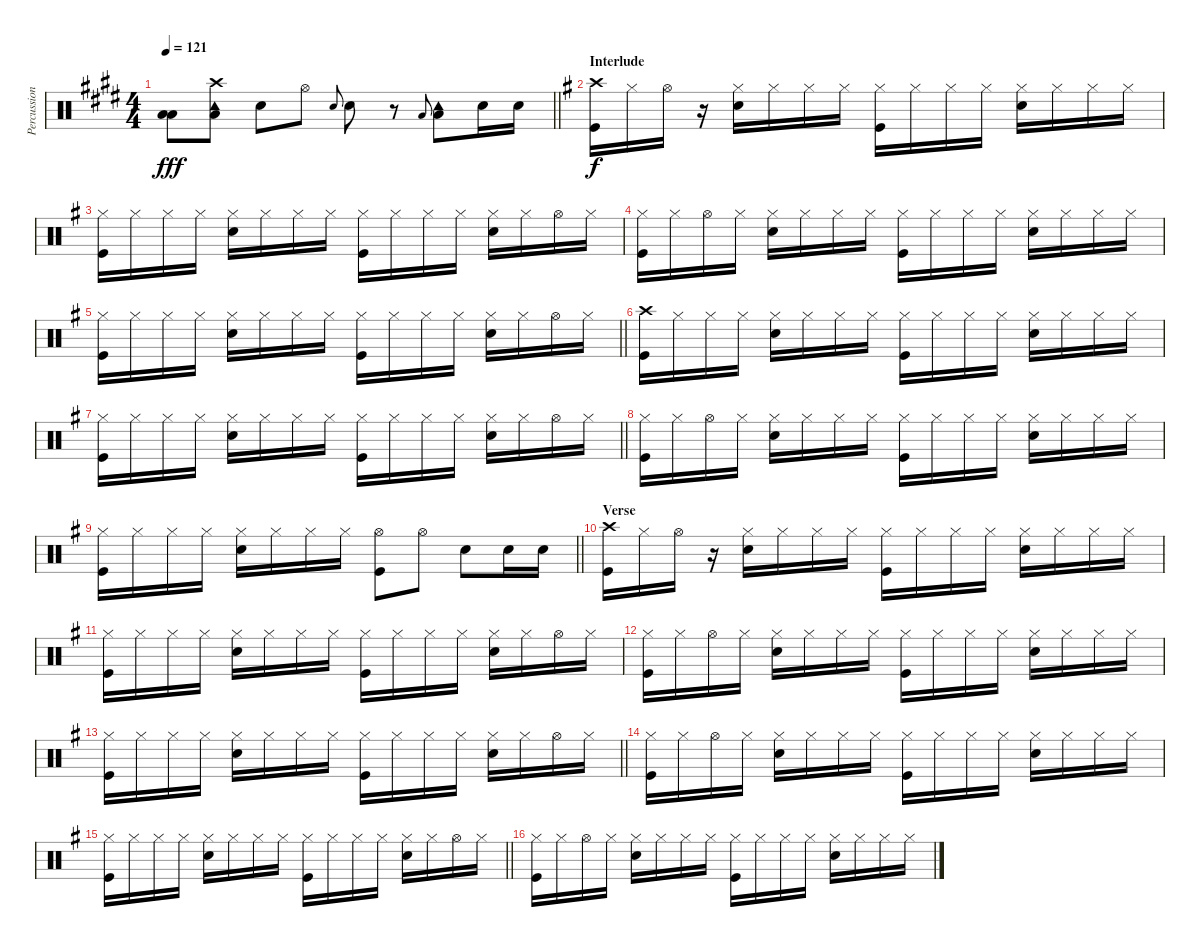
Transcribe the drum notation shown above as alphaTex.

\track ("Percussion" "Percussion") {instrument percussion}
\staff {score}
\articulation defaults
\ts (4 4)
\tempo 121
\clef neutral
\barLineRight lightlight
\ks e
("Low Floor Tom (hit)" "Low Tom (hit)").8{dy fff} ("Crash high (hit)" "Tambourine (hit)" "Low Floor Tom (hit)").8 "Snare (hit) 2".8 "Hi-Hat (open)".8 "Snare (hit) 2".8{gr onbeat} "Snare (hit) 2".8 r.8 "Low Floor Tom (hit)".8{gr onbeat} ("Tambourine (hit)" "Low Floor Tom (hit)").8 "Snare (hit) 2".16 "Snare (hit) 2".16 |
\section ("" "Interlude")
\ks g
("Kick (hit)" "Crash high (hit)").16{dy f} "Hi-Hat (closed)".16 "Hi-Hat (open)".16 r.16 ("Hi-Hat (closed)" "Snare (hit) 2").16 "Hi-Hat (closed)".16 "Hi-Hat (closed)".16 "Hi-Hat (closed)".16 ("Hi-Hat (closed)" "Kick (hit)").16 "Hi-Hat (closed)".16 "Hi-Hat (closed)".16 "Hi-Hat (closed)".16 ("Hi-Hat (closed)" "Snare (hit) 2").16 "Hi-Hat (closed)".16 "Hi-Hat (closed)".16 "Hi-Hat (closed)".16 |
("Hi-Hat (closed)" "Kick (hit)").16 "Hi-Hat (closed)".16 "Hi-Hat (closed)".16 "Hi-Hat (closed)".16 ("Hi-Hat (closed)" "Snare (hit) 2").16 "Hi-Hat (closed)".16 "Hi-Hat (closed)".16 "Hi-Hat (closed)".16 ("Hi-Hat (closed)" "Kick (hit)").16 "Hi-Hat (closed)".16 "Hi-Hat (closed)".16 "Hi-Hat (closed)".16 ("Hi-Hat (closed)" "Snare (hit) 2").16 "Hi-Hat (closed)".16 "Hi-Hat (open)".16 "Hi-Hat (closed)".16 |
("Hi-Hat (closed)" "Kick (hit)").16 "Hi-Hat (closed)".16 "Hi-Hat (open)".16 "Hi-Hat (closed)".16 ("Hi-Hat (closed)" "Snare (hit) 2").16 "Hi-Hat (closed)".16 "Hi-Hat (closed)".16 "Hi-Hat (closed)".16 ("Hi-Hat (closed)" "Kick (hit)").16 "Hi-Hat (closed)".16 "Hi-Hat (closed)".16 "Hi-Hat (closed)".16 ("Hi-Hat (closed)" "Snare (hit) 2").16 "Hi-Hat (closed)".16 "Hi-Hat (closed)".16 "Hi-Hat (closed)".16 |
\barLineRight lightlight
("Hi-Hat (closed)" "Kick (hit)").16 "Hi-Hat (closed)".16 "Hi-Hat (closed)".16 "Hi-Hat (closed)".16 ("Hi-Hat (closed)" "Snare (hit) 2").16 "Hi-Hat (closed)".16 "Hi-Hat (closed)".16 "Hi-Hat (closed)".16 ("Hi-Hat (closed)" "Kick (hit)").16 "Hi-Hat (closed)".16 "Hi-Hat (closed)".16 "Hi-Hat (closed)".16 ("Hi-Hat (closed)" "Snare (hit) 2").16 "Hi-Hat (closed)".16 "Hi-Hat (open)".16 "Hi-Hat (closed)".16 |
("Kick (hit)" "Crash high (hit)").16 "Hi-Hat (closed)".16 "Hi-Hat (closed)".16 "Hi-Hat (closed)".16 ("Hi-Hat (closed)" "Snare (hit) 2").16 "Hi-Hat (closed)".16 "Hi-Hat (closed)".16 "Hi-Hat (closed)".16 ("Hi-Hat (closed)" "Kick (hit)").16 "Hi-Hat (closed)".16 "Hi-Hat (closed)".16 "Hi-Hat (closed)".16 ("Hi-Hat (closed)" "Snare (hit) 2").16 "Hi-Hat (closed)".16 "Hi-Hat (closed)".16 "Hi-Hat (closed)".16 |
\barLineRight lightlight
("Hi-Hat (closed)" "Kick (hit)").16 "Hi-Hat (closed)".16 "Hi-Hat (closed)".16 "Hi-Hat (closed)".16 ("Hi-Hat (closed)" "Snare (hit) 2").16 "Hi-Hat (closed)".16 "Hi-Hat (closed)".16 "Hi-Hat (closed)".16 ("Hi-Hat (closed)" "Kick (hit)").16 "Hi-Hat (closed)".16 "Hi-Hat (closed)".16 "Hi-Hat (closed)".16 ("Hi-Hat (closed)" "Snare (hit) 2").16 "Hi-Hat (closed)".16 "Hi-Hat (open)".16 "Hi-Hat (closed)".16 |
("Hi-Hat (closed)" "Kick (hit)").16 "Hi-Hat (closed)".16 "Hi-Hat (open)".16 "Hi-Hat (closed)".16 ("Hi-Hat (closed)" "Snare (hit) 2").16 "Hi-Hat (closed)".16 "Hi-Hat (closed)".16 "Hi-Hat (closed)".16 ("Hi-Hat (closed)" "Kick (hit)").16 "Hi-Hat (closed)".16 "Hi-Hat (closed)".16 "Hi-Hat (closed)".16 ("Hi-Hat (closed)" "Snare (hit) 2").16 "Hi-Hat (closed)".16 "Hi-Hat (closed)".16 "Hi-Hat (closed)".16 |
\barLineRight lightlight
("Hi-Hat (closed)" "Kick (hit)").16 "Hi-Hat (closed)".16 "Hi-Hat (closed)".16 "Hi-Hat (closed)".16 ("Hi-Hat (closed)" "Snare (hit) 2").16 "Hi-Hat (closed)".16 "Hi-Hat (closed)".16 "Hi-Hat (closed)".16 ("Hi-Hat (open)" "Kick (hit)").8 "Hi-Hat (open)".8 "Snare (hit) 2".8 "Snare (hit) 2".16 "Snare (hit) 2".16 |
\section ("" "Verse")
("Kick (hit)" "Crash high (hit)").16 "Hi-Hat (closed)".16 "Hi-Hat (open)".16 r.16 ("Hi-Hat (closed)" "Snare (hit) 2").16 "Hi-Hat (closed)".16 "Hi-Hat (closed)".16 "Hi-Hat (closed)".16 ("Hi-Hat (closed)" "Kick (hit)").16 "Hi-Hat (closed)".16 "Hi-Hat (closed)".16 "Hi-Hat (closed)".16 ("Hi-Hat (closed)" "Snare (hit) 2").16 "Hi-Hat (closed)".16 "Hi-Hat (closed)".16 "Hi-Hat (closed)".16 |
("Hi-Hat (closed)" "Kick (hit)").16 "Hi-Hat (closed)".16 "Hi-Hat (closed)".16 "Hi-Hat (closed)".16 ("Hi-Hat (closed)" "Snare (hit) 2").16 "Hi-Hat (closed)".16 "Hi-Hat (closed)".16 "Hi-Hat (closed)".16 ("Hi-Hat (closed)" "Kick (hit)").16 "Hi-Hat (closed)".16 "Hi-Hat (closed)".16 "Hi-Hat (closed)".16 ("Hi-Hat (closed)" "Snare (hit) 2").16 "Hi-Hat (closed)".16 "Hi-Hat (open)".16 "Hi-Hat (closed)".16 |
("Hi-Hat (closed)" "Kick (hit)").16 "Hi-Hat (closed)".16 "Hi-Hat (open)".16 "Hi-Hat (closed)".16 ("Hi-Hat (closed)" "Snare (hit) 2").16 "Hi-Hat (closed)".16 "Hi-Hat (closed)".16 "Hi-Hat (closed)".16 ("Hi-Hat (closed)" "Kick (hit)").16 "Hi-Hat (closed)".16 "Hi-Hat (closed)".16 "Hi-Hat (closed)".16 ("Hi-Hat (closed)" "Snare (hit) 2").16 "Hi-Hat (closed)".16 "Hi-Hat (closed)".16 "Hi-Hat (closed)".16 |
\barLineRight lightlight
("Hi-Hat (closed)" "Kick (hit)").16 "Hi-Hat (closed)".16 "Hi-Hat (closed)".16 "Hi-Hat (closed)".16 ("Hi-Hat (closed)" "Snare (hit) 2").16 "Hi-Hat (closed)".16 "Hi-Hat (closed)".16 "Hi-Hat (closed)".16 ("Hi-Hat (closed)" "Kick (hit)").16 "Hi-Hat (closed)".16 "Hi-Hat (closed)".16 "Hi-Hat (closed)".16 ("Hi-Hat (closed)" "Snare (hit) 2").16 "Hi-Hat (closed)".16 "Hi-Hat (open)".16 "Hi-Hat (closed)".16 |
("Hi-Hat (closed)" "Kick (hit)").16 "Hi-Hat (closed)".16 "Hi-Hat (open)".16 "Hi-Hat (closed)".16 ("Hi-Hat (closed)" "Snare (hit) 2").16 "Hi-Hat (closed)".16 "Hi-Hat (closed)".16 "Hi-Hat (closed)".16 ("Hi-Hat (closed)" "Kick (hit)").16 "Hi-Hat (closed)".16 "Hi-Hat (closed)".16 "Hi-Hat (closed)".16 ("Hi-Hat (closed)" "Snare (hit) 2").16 "Hi-Hat (closed)".16 "Hi-Hat (closed)".16 "Hi-Hat (closed)".16 |
\barLineRight lightlight
("Hi-Hat (closed)" "Kick (hit)").16 "Hi-Hat (closed)".16 "Hi-Hat (closed)".16 "Hi-Hat (closed)".16 ("Hi-Hat (closed)" "Snare (hit) 2").16 "Hi-Hat (closed)".16 "Hi-Hat (closed)".16 "Hi-Hat (closed)".16 ("Hi-Hat (closed)" "Kick (hit)").16 "Hi-Hat (closed)".16 "Hi-Hat (closed)".16 "Hi-Hat (closed)".16 ("Hi-Hat (closed)" "Snare (hit) 2").16 "Hi-Hat (closed)".16 "Hi-Hat (open)".16 "Hi-Hat (closed)".16 |
("Hi-Hat (closed)" "Kick (hit)").16 "Hi-Hat (closed)".16 "Hi-Hat (open)".16 "Hi-Hat (closed)".16 ("Hi-Hat (closed)" "Snare (hit) 2").16 "Hi-Hat (closed)".16 "Hi-Hat (closed)".16 "Hi-Hat (closed)".16 ("Hi-Hat (closed)" "Kick (hit)").16 "Hi-Hat (closed)".16 "Hi-Hat (closed)".16 "Hi-Hat (closed)".16 ("Hi-Hat (closed)" "Snare (hit) 2").16 "Hi-Hat (closed)".16 "Hi-Hat (closed)".16 "Hi-Hat (closed)".16
